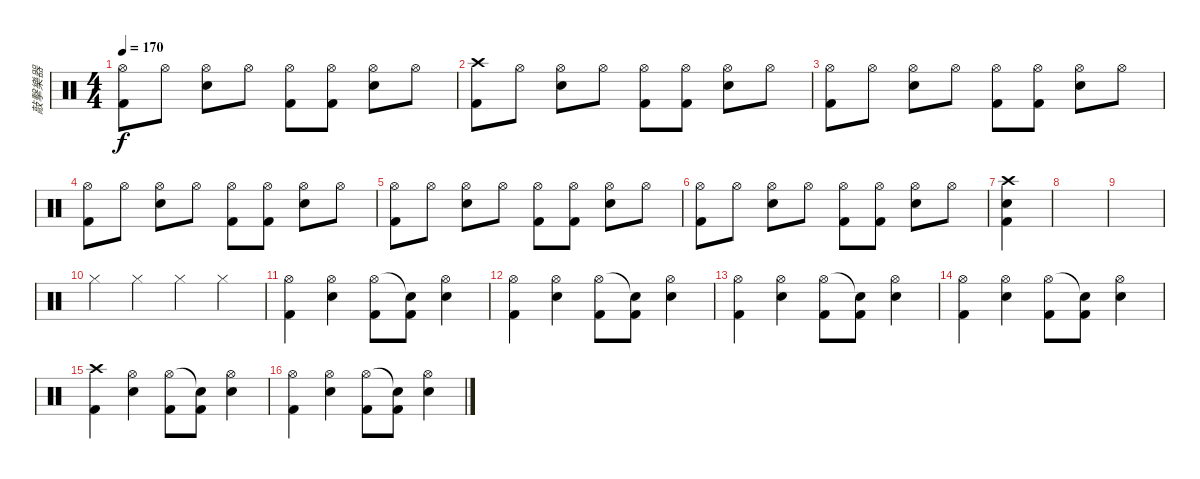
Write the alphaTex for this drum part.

\track ("敲擊樂器" "敲擊樂器") {instrument percussion}
\staff {score}
\articulation defaults
\ts (4 4)
\tempo 170
\clef neutral
\ks c
("Hi-Hat (open)" "Kick (hit) 2").8{dy f} "Hi-Hat (open)".8 ("Hi-Hat (open)" "Snare (hit) 2").8 "Hi-Hat (open)".8 ("Hi-Hat (open)" "Kick (hit) 2").8 ("Hi-Hat (open)" "Kick (hit) 2").8 ("Hi-Hat (open)" "Snare (hit) 2").8 "Hi-Hat (open)".8 |
("Crash high (hit)" "Kick (hit) 2").8 "Hi-Hat (open)".8 ("Hi-Hat (open)" "Snare (hit) 2").8 "Hi-Hat (open)".8 ("Hi-Hat (open)" "Kick (hit) 2").8 ("Hi-Hat (open)" "Kick (hit) 2").8 ("Hi-Hat (open)" "Snare (hit) 2").8 "Hi-Hat (open)".8 |
("Hi-Hat (open)" "Kick (hit) 2").8 "Hi-Hat (open)".8 ("Hi-Hat (open)" "Snare (hit) 2").8 "Hi-Hat (open)".8 ("Hi-Hat (open)" "Kick (hit) 2").8 ("Hi-Hat (open)" "Kick (hit) 2").8 ("Hi-Hat (open)" "Snare (hit) 2").8 "Hi-Hat (open)".8 |
("Hi-Hat (open)" "Kick (hit) 2").8 "Hi-Hat (open)".8 ("Hi-Hat (open)" "Snare (hit) 2").8 "Hi-Hat (open)".8 ("Hi-Hat (open)" "Kick (hit) 2").8 ("Hi-Hat (open)" "Kick (hit) 2").8 ("Hi-Hat (open)" "Snare (hit) 2").8 "Hi-Hat (open)".8 |
("Hi-Hat (open)" "Kick (hit) 2").8 "Hi-Hat (open)".8 ("Hi-Hat (open)" "Snare (hit) 2").8 "Hi-Hat (open)".8 ("Hi-Hat (open)" "Kick (hit) 2").8 ("Hi-Hat (open)" "Kick (hit) 2").8 ("Hi-Hat (open)" "Snare (hit) 2").8 "Hi-Hat (open)".8 |
("Hi-Hat (open)" "Kick (hit) 2").8 "Hi-Hat (open)".8 ("Hi-Hat (open)" "Snare (hit) 2").8 "Hi-Hat (open)".8 ("Hi-Hat (open)" "Kick (hit) 2").8 ("Hi-Hat (open)" "Kick (hit) 2").8 ("Hi-Hat (open)" "Snare (hit) 2").8 "Hi-Hat (open)".8 |
("Crash high (hit)" "Snare (hit) 2" "Kick (hit) 2").4 |
|
|
"Hi-Hat (closed)".4 "Hi-Hat (closed)".4 "Hi-Hat (closed)".4 "Hi-Hat (closed)".4 |
("Hi-Hat (open)" "Kick (hit) 2").4 ("Hi-Hat (open)" "Snare (hit) 2").4 ("Hi-Hat (open)" "Kick (hit) 2").8 ("Snare (hit)"{t} "Kick (hit) 2").8 ("Hi-Hat (open)" "Snare (hit) 2").4 |
("Hi-Hat (open)" "Kick (hit) 2").4 ("Hi-Hat (open)" "Snare (hit) 2").4 ("Hi-Hat (open)" "Kick (hit) 2").8 ("Snare (hit)"{t} "Kick (hit) 2").8 ("Hi-Hat (open)" "Snare (hit) 2").4 |
("Hi-Hat (open)" "Kick (hit) 2").4 ("Hi-Hat (open)" "Snare (hit) 2").4 ("Hi-Hat (open)" "Kick (hit) 2").8 ("Snare (hit)"{t} "Kick (hit) 2").8 ("Hi-Hat (open)" "Snare (hit) 2").4 |
("Hi-Hat (open)" "Kick (hit) 2").4 ("Hi-Hat (open)" "Snare (hit) 2").4 ("Hi-Hat (open)" "Kick (hit) 2").8 ("Snare (hit)"{t} "Kick (hit) 2").8 ("Hi-Hat (open)" "Snare (hit) 2").4 |
("Crash high (hit)" "Kick (hit) 2").4 ("Hi-Hat (open)" "Snare (hit) 2").4 ("Hi-Hat (open)" "Kick (hit) 2").8 ("Snare (hit)"{t} "Kick (hit) 2").8 ("Hi-Hat (open)" "Snare (hit) 2").4 |
("Hi-Hat (open)" "Kick (hit) 2").4 ("Hi-Hat (open)" "Snare (hit) 2").4 ("Hi-Hat (open)" "Kick (hit) 2").8 ("Snare (hit)"{t} "Kick (hit) 2").8 ("Hi-Hat (open)" "Snare (hit) 2").4
